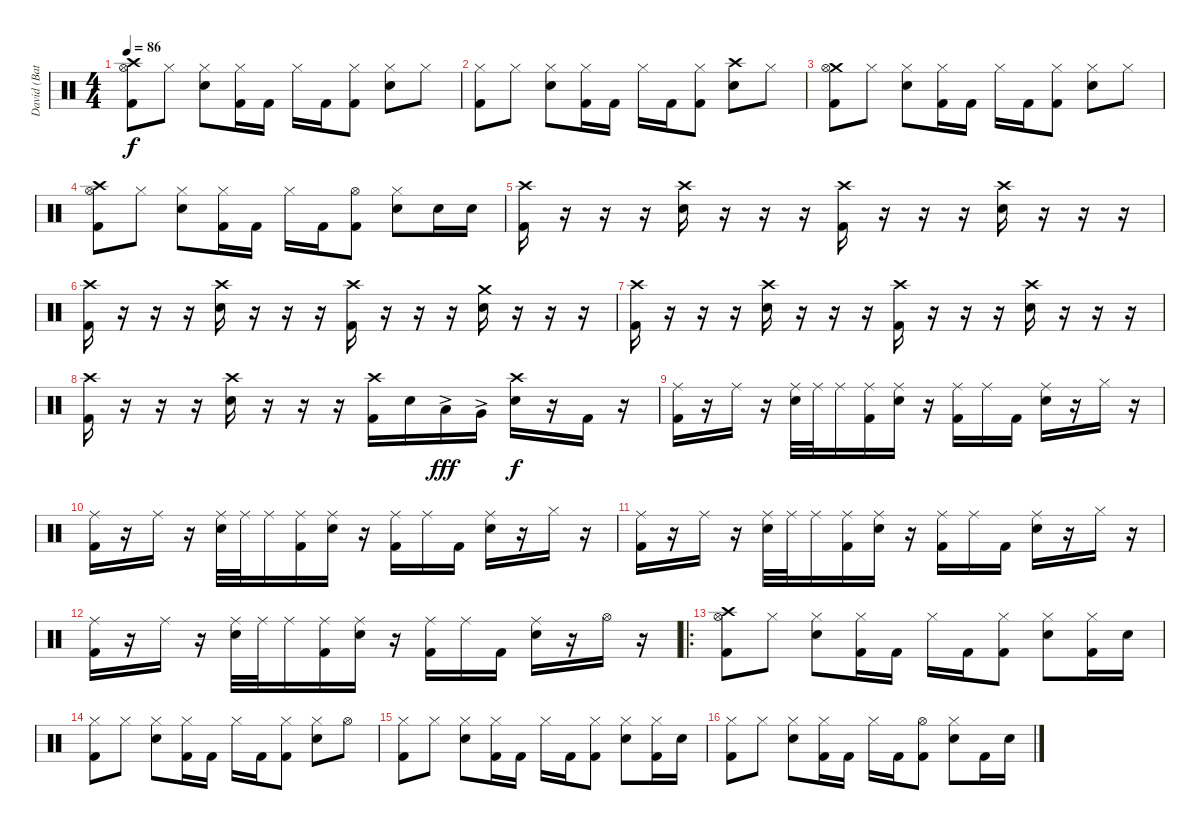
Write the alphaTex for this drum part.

\track ("David (Batterie)" "David (Bat") {instrument percussion}
\staff {score}
\articulation defaults
\ts (4 4)
\tempo 86
\clef neutral
\ks c
("Crash high (hit)" "Hi-Hat (open)" "Kick (hit) 2").8{dy f} "Hi-Hat (closed)".8 ("Hi-Hat (closed)" "Electric Snare (hit)").8 ("Hi-Hat (closed)" "Kick (hit) 2").16 "Kick (hit) 2".16 "Hi-Hat (closed)".16 "Kick (hit) 2".16 ("Hi-Hat (closed)" "Kick (hit) 2").8 ("Hi-Hat (closed)" "Electric Snare (hit)").8 "Hi-Hat (closed)".8 |
("Hi-Hat (closed)" "Kick (hit) 2").8 "Hi-Hat (closed)".8 ("Hi-Hat (closed)" "Electric Snare (hit)").8 ("Hi-Hat (closed)" "Kick (hit) 2").16 "Kick (hit) 2".16 "Hi-Hat (closed)".16 "Kick (hit) 2".16 ("Hi-Hat (closed)" "Kick (hit) 2").8 ("Crash high (hit)" "Electric Snare (hit)").8 "Hi-Hat (closed)".8 |
("Crash medium (hit)" "Hi-Hat (open)" "Kick (hit) 2").8 "Hi-Hat (closed)".8 ("Hi-Hat (closed)" "Electric Snare (hit)").8 ("Hi-Hat (closed)" "Kick (hit) 2").16 "Kick (hit) 2".16 "Hi-Hat (closed)".16 "Kick (hit) 2".16 ("Hi-Hat (closed)" "Kick (hit) 2").8 ("Hi-Hat (closed)" "Electric Snare (hit)").8 "Hi-Hat (closed)".8 |
("Crash high (hit)" "Hi-Hat (open)" "Kick (hit) 2").8 "Hi-Hat (closed)".8 ("Hi-Hat (closed)" "Electric Snare (hit)").8 ("Hi-Hat (closed)" "Kick (hit) 2").16 "Kick (hit) 2".16 "Hi-Hat (closed)".16 "Kick (hit) 2".16 ("Hi-Hat (open)" "Kick (hit) 2").8 ("Hi-Hat (closed)" "Electric Snare (hit)").8 "Electric Snare (hit)".16 "Electric Snare (hit)".16 |
("Crash high (hit)" "Kick (hit) 2").16 r.16 r.16 r.16 ("Crash high (hit)" "Electric Snare (hit)").16 r.16 r.16 r.16 ("Crash high (hit)" "Kick (hit) 2").16 r.16 r.16 r.16 ("Crash high (hit)" "Electric Snare (hit)").16 r.16 r.16 r.16 |
("Crash high (hit)" "Kick (hit) 2").16 r.16 r.16 r.16 ("Crash high (hit)" "Electric Snare (hit)").16 r.16 r.16 r.16 ("Crash high (hit)" "Kick (hit) 2").16 r.16 r.16 r.16 ("Crash medium (hit)" "Electric Snare (hit)").16 r.16 r.16 r.16 |
("Crash high (hit)" "Kick (hit) 2").16 r.16 r.16 r.16 ("Crash high (hit)" "Electric Snare (hit)").16 r.16 r.16 r.16 ("Crash high (hit)" "Kick (hit) 2").16 r.16 r.16 r.16 ("Crash high (hit)" "Electric Snare (hit)").16 r.16 r.16 r.16 |
("Crash high (hit)" "Kick (hit) 2").16 r.16 r.16 r.16 ("Crash high (hit)" "Electric Snare (hit)").16 r.16 r.16 r.16 ("Crash high (hit)" "Kick (hit) 2").16 "Electric Snare (hit)".16 "Low Tom (hit)"{ac}.16{dy fff} "Very Low Tom (hit)"{ac}.16 ("Crash high (hit)" "Electric Snare (hit)").16{dy f} r.16 "Kick (hit) 2".16 r.16 |
("Ride (middle)" "Kick (hit) 2").16 r.16 "Ride (middle)".16 r.16 ("Ride (middle)" "Electric Snare (hit)").32 "Ride (middle)".32 "Ride (middle)".16 ("Ride (middle)" "Kick (hit) 2").16 ("Ride (middle)" "Electric Snare (hit)").16 r.16 ("Ride (middle)" "Kick (hit) 2").16 "Ride (middle)".16 "Kick (hit) 2".16 ("Ride (middle)" "Electric Snare (hit)").16 r.16 "Hi-Hat (closed)".16 r.16 |
("Ride (middle)" "Kick (hit) 2").16 r.16 "Ride (middle)".16 r.16 ("Ride (middle)" "Electric Snare (hit)").32 "Ride (middle)".32 "Ride (middle)".16 ("Ride (middle)" "Kick (hit) 2").16 ("Ride (middle)" "Electric Snare (hit)").16 r.16 ("Ride (middle)" "Kick (hit) 2").16 "Ride (middle)".16 "Kick (hit) 2".16 ("Ride (middle)" "Electric Snare (hit)").16 r.16 "Hi-Hat (closed)".16 r.16 |
("Ride (middle)" "Kick (hit) 2").16 r.16 "Ride (middle)".16 r.16 ("Ride (middle)" "Electric Snare (hit)").32 "Ride (middle)".32 "Ride (middle)".16 ("Ride (middle)" "Kick (hit) 2").16 ("Ride (middle)" "Electric Snare (hit)").16 r.16 ("Ride (middle)" "Kick (hit) 2").16 "Ride (middle)".16 "Kick (hit) 2".16 ("Ride (middle)" "Electric Snare (hit)").16 r.16 "Hi-Hat (closed)".16 r.16 |
("Ride (middle)" "Kick (hit) 2").16 r.16 "Ride (middle)".16 r.16 ("Ride (middle)" "Electric Snare (hit)").32 "Ride (middle)".32 "Ride (middle)".16 ("Ride (middle)" "Kick (hit) 2").16 ("Ride (middle)" "Electric Snare (hit)").16 r.16 ("Ride (middle)" "Kick (hit) 2").16 "Ride (middle)".16 "Kick (hit) 2".16 ("Ride (middle)" "Electric Snare (hit)").16 r.16 "Hi-Hat (open)".16 r.16 |
\ro
("Crash high (hit)" "Hi-Hat (open)" "Kick (hit) 2").8 "Hi-Hat (closed)".8 ("Hi-Hat (closed)" "Electric Snare (hit)").8 ("Hi-Hat (closed)" "Kick (hit) 2").16 "Kick (hit) 2".16 "Hi-Hat (closed)".16 "Kick (hit) 2".16 ("Hi-Hat (closed)" "Kick (hit) 2").8 ("Hi-Hat (closed)" "Electric Snare (hit)").8 ("Hi-Hat (closed)" "Kick (hit) 2").16 "Electric Snare (hit)".16 |
("Hi-Hat (closed)" "Kick (hit) 2").8 "Hi-Hat (closed)".8 ("Hi-Hat (closed)" "Electric Snare (hit)").8 ("Hi-Hat (closed)" "Kick (hit) 2").16 "Kick (hit) 2".16 "Hi-Hat (closed)".16 "Kick (hit) 2".16 ("Hi-Hat (closed)" "Kick (hit) 2").8 ("Hi-Hat (closed)" "Electric Snare (hit)").8 "Hi-Hat (open)".8 |
("Hi-Hat (closed)" "Kick (hit) 2").8 "Hi-Hat (closed)".8 ("Hi-Hat (closed)" "Electric Snare (hit)").8 ("Hi-Hat (closed)" "Kick (hit) 2").16 "Kick (hit) 2".16 "Hi-Hat (closed)".16 "Kick (hit) 2".16 ("Hi-Hat (closed)" "Kick (hit) 2").8 ("Hi-Hat (closed)" "Electric Snare (hit)").8 ("Hi-Hat (closed)" "Kick (hit) 2").16 "Electric Snare (hit)".16 |
("Hi-Hat (closed)" "Kick (hit) 2").8 "Hi-Hat (closed)".8 ("Hi-Hat (closed)" "Electric Snare (hit)").8 ("Hi-Hat (closed)" "Kick (hit) 2").16 "Kick (hit) 2".16 "Hi-Hat (closed)".16 "Kick (hit) 2".16 ("Hi-Hat (open)" "Kick (hit) 2").8 ("Hi-Hat (closed)" "Electric Snare (hit)").8 "Kick (hit) 2".16 "Electric Snare (hit)".16
